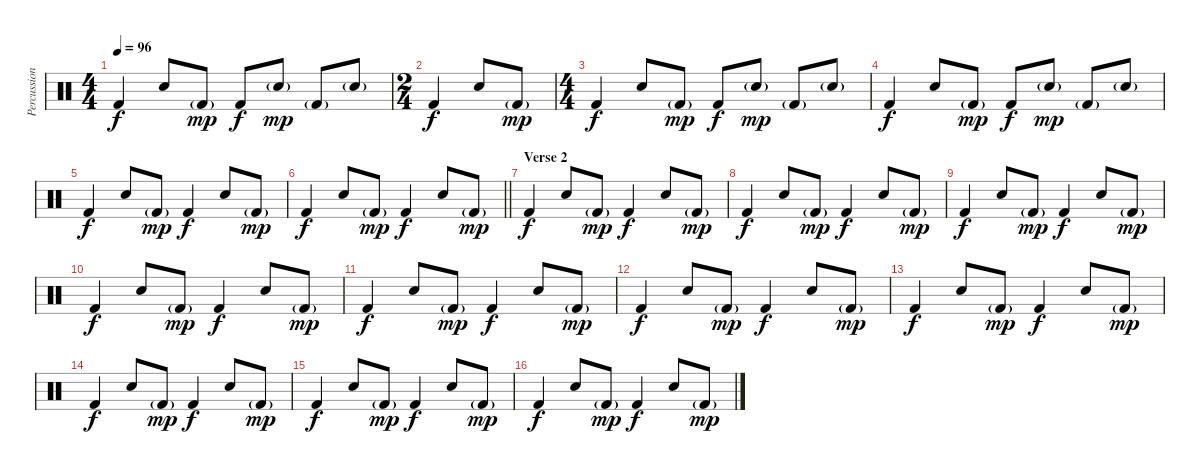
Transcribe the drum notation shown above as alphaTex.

\track ("Percussion" "Percussion") {instrument percussion}
\staff {score}
\articulation defaults
\ts (4 4)
\tempo 96
\clef neutral
\ks c "Kick (hit) 2".4{dy f} "Snare (hit) 2".8 "Kick (hit) 2"{g}.8{dy mp} "Kick (hit) 2".8{dy f} "Snare (hit) 2"{g}.8{dy mp} "Kick (hit) 2"{g}.8 "Snare (hit) 2"{g}.8
|
\ts (2 4)
"Kick (hit) 2".4{dy f} "Snare (hit) 2".8 "Kick (hit) 2"{g}.8{dy mp} |
\ts (4 4)
"Kick (hit) 2".4{dy f} "Snare (hit) 2".8 "Kick (hit) 2"{g}.8{dy mp} "Kick (hit) 2".8{dy f} "Snare (hit) 2"{g}.8{dy mp} "Kick (hit) 2"{g}.8 "Snare (hit) 2"{g}.8 |
"Kick (hit) 2".4{dy f} "Snare (hit) 2".8 "Kick (hit) 2"{g}.8{dy mp} "Kick (hit) 2".8{dy f} "Snare (hit) 2"{g}.8{dy mp} "Kick (hit) 2"{g}.8 "Snare (hit) 2"{g}.8 |
"Kick (hit) 2".4{dy f} "Snare (hit) 2".8 "Kick (hit) 2"{g}.8{dy mp} "Kick (hit) 2".4{dy f} "Snare (hit) 2".8 "Kick (hit) 2"{g}.8{dy mp} |
\barLineRight lightlight "Kick (hit) 2".4{dy f} "Snare (hit) 2".8 "Kick (hit) 2"{g}.8{dy mp} "Kick (hit) 2".4{dy f} "Snare (hit) 2".8 "Kick (hit) 2"{g}.8{dy mp}
|
\section ("" "Verse 2")
"Kick (hit) 2".4{dy f} "Snare (hit) 2".8 "Kick (hit) 2"{g}.8{dy mp} "Kick (hit) 2".4{dy f} "Snare (hit) 2".8 "Kick (hit) 2"{g}.8{dy mp} |
"Kick (hit) 2".4{dy f} "Snare (hit) 2".8 "Kick (hit) 2"{g}.8{dy mp} "Kick (hit) 2".4{dy f} "Snare (hit) 2".8 "Kick (hit) 2"{g}.8{dy mp} |
"Kick (hit) 2".4{dy f} "Snare (hit) 2".8 "Kick (hit) 2"{g}.8{dy mp} "Kick (hit) 2".4{dy f} "Snare (hit) 2".8 "Kick (hit) 2"{g}.8{dy mp} |
"Kick (hit) 2".4{dy f} "Snare (hit) 2".8 "Kick (hit) 2"{g}.8{dy mp} "Kick (hit) 2".4{dy f} "Snare (hit) 2".8 "Kick (hit) 2"{g}.8{dy mp} |
"Kick (hit) 2".4{dy f} "Snare (hit) 2".8 "Kick (hit) 2"{g}.8{dy mp} "Kick (hit) 2".4{dy f} "Snare (hit) 2".8 "Kick (hit) 2"{g}.8{dy mp} |
"Kick (hit) 2".4{dy f} "Snare (hit) 2".8 "Kick (hit) 2"{g}.8{dy mp} "Kick (hit) 2".4{dy f} "Snare (hit) 2".8 "Kick (hit) 2"{g}.8{dy mp} |
"Kick (hit) 2".4{dy f} "Snare (hit) 2".8 "Kick (hit) 2"{g}.8{dy mp} "Kick (hit) 2".4{dy f} "Snare (hit) 2".8 "Kick (hit) 2"{g}.8{dy mp} |
"Kick (hit) 2".4{dy f} "Snare (hit) 2".8 "Kick (hit) 2"{g}.8{dy mp} "Kick (hit) 2".4{dy f} "Snare (hit) 2".8 "Kick (hit) 2"{g}.8{dy mp} |
"Kick (hit) 2".4{dy f} "Snare (hit) 2".8 "Kick (hit) 2"{g}.8{dy mp} "Kick (hit) 2".4{dy f} "Snare (hit) 2".8 "Kick (hit) 2"{g}.8{dy mp} |
"Kick (hit) 2".4{dy f} "Snare (hit) 2".8 "Kick (hit) 2"{g}.8{dy mp} "Kick (hit) 2".4{dy f} "Snare (hit) 2".8 "Kick (hit) 2"{g}.8{dy mp}
